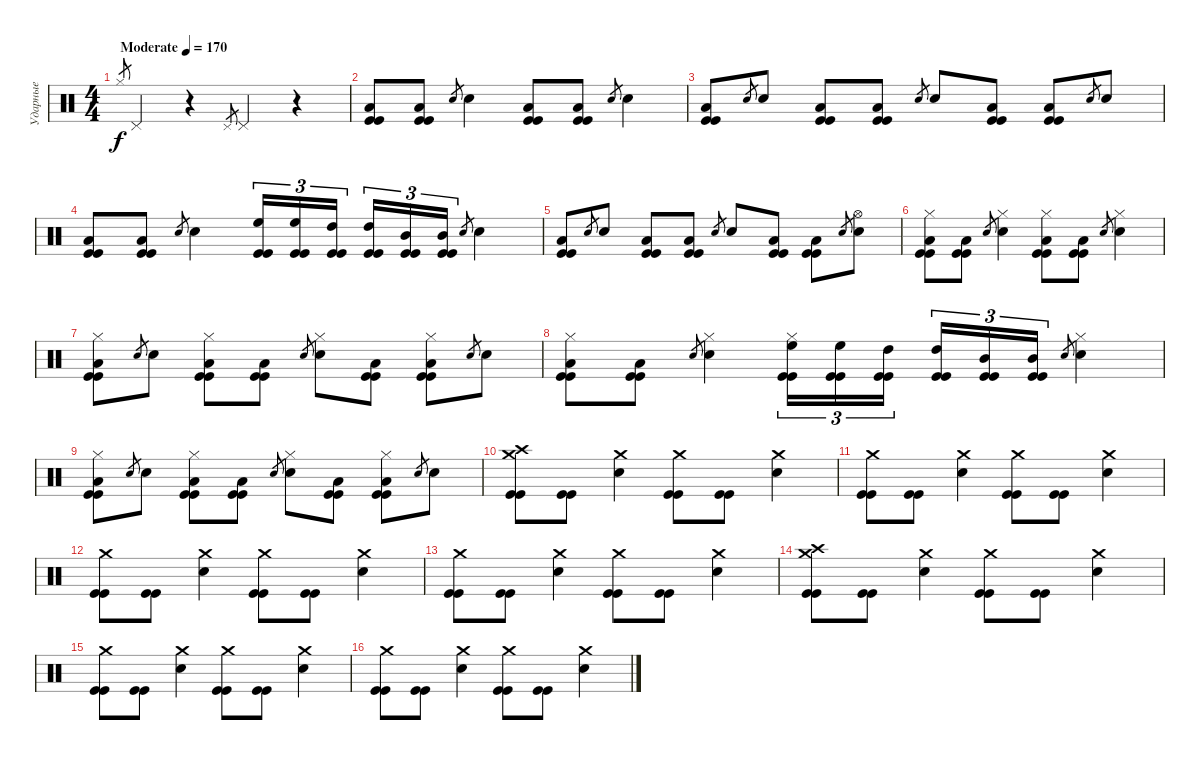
\track ("Ударные" "Ударные") {instrument percussion}
\staff {score}
\articulation defaults
\ts (4 4)
\tempo (170 "Moderate")
\clef neutral
\ks c "Hi-Hat (closed)".8{gr dy f} "Pedal Hi-Hat (hit)".4
r.4 "Pedal Hi-Hat (hit)".8{gr} "Pedal Hi-Hat (hit)".4 r.4 |
("Low Tom (hit)" "Kick (hit)" "Kick (hit)").8 ("Low Tom (hit)" "Kick (hit)" "Kick (hit)").8 "Electric Snare (hit)".8{gr} "Electric Snare (hit)".4 ("Low Tom (hit)" "Kick (hit)" "Kick (hit)").8 ("Low Tom (hit)" "Kick (hit)" "Kick (hit)").8 "Electric Snare (hit)".8{gr} "Electric Snare (hit)".4 |
("Low Tom (hit)" "Kick (hit)" "Kick (hit)").8 "Electric Snare (hit)".8{gr} "Electric Snare (hit)".8 ("Low Tom (hit)" "Kick (hit)" "Kick (hit)").8 ("Low Tom (hit)" "Kick (hit)" "Kick (hit)").8 "Electric Snare (hit)".8{gr} "Electric Snare (hit)".8 ("Low Tom (hit)" "Kick (hit)" "Kick (hit)").8 ("Low Tom (hit)" "Kick (hit)" "Kick (hit)").8 "Electric Snare (hit)".8{gr} "Electric Snare (hit)".8 |
("Low Tom (hit)" "Kick (hit)" "Kick (hit)").8 ("Low Tom (hit)" "Kick (hit)" "Kick (hit)").8 "Electric Snare (hit)".8{gr} "Electric Snare (hit)".4 ("High Floor Tom (hit)" "Kick (hit)" "Kick (hit)").16{tu (3 2)} ("High Floor Tom (hit)" "Kick (hit)" "Kick (hit)").16{tu (3 2)} ("High Tom (hit)" "Kick (hit)" "Kick (hit)").16{tu (3 2) beam splitsecondary} ("High Tom (hit)" "Kick (hit)" "Kick (hit)").16{tu (3 2)} ("Mid Tom (hit)" "Kick (hit)" "Kick (hit)").16{tu (3 2)} ("Mid Tom (hit)" "Kick (hit)" "Kick (hit)").16{tu (3 2)} "Electric Snare (hit)".8{gr} "Electric Snare (hit)".4 |
("Low Tom (hit)" "Kick (hit)" "Kick (hit)").8 "Electric Snare (hit)".8{gr} "Electric Snare (hit)".8 ("Low Tom (hit)" "Kick (hit)" "Kick (hit)").8 ("Low Tom (hit)" "Kick (hit)" "Kick (hit)").8 "Electric Snare (hit)".8{gr} "Electric Snare (hit)".8 ("Low Tom (hit)" "Kick (hit)" "Kick (hit)").8 ("Low Tom (hit)" "Kick (hit)" "Kick (hit)").8 "Electric Snare (hit)".8{gr} ("Hi-Hat (open)" "Electric Snare (hit)").8 |
("Hi-Hat (closed)" "Low Tom (hit)" "Kick (hit)" "Kick (hit)").8 ("Low Tom (hit)" "Kick (hit)" "Kick (hit)").8 "Electric Snare (hit)".8{gr} ("Hi-Hat (closed)" "Electric Snare (hit)").4 ("Hi-Hat (closed)" "Low Tom (hit)" "Kick (hit)" "Kick (hit)").8 ("Low Tom (hit)" "Kick (hit)" "Kick (hit)").8 "Electric Snare (hit)".8{gr} ("Hi-Hat (closed)" "Electric Snare (hit)").4 |
("Hi-Hat (closed)" "Low Tom (hit)" "Kick (hit)" "Kick (hit)").8 "Electric Snare (hit)".8{gr} "Electric Snare (hit)".8 ("Hi-Hat (closed)" "Low Tom (hit)" "Kick (hit)" "Kick (hit)").8 ("Low Tom (hit)" "Kick (hit)" "Kick (hit)").8 "Electric Snare (hit)".8{gr} ("Hi-Hat (closed)" "Electric Snare (hit)").8 ("Low Tom (hit)" "Kick (hit)" "Kick (hit)").8 ("Hi-Hat (closed)" "Low Tom (hit)" "Kick (hit)" "Kick (hit)").8 "Electric Snare (hit)".8{gr} "Electric Snare (hit)".8 |
("Hi-Hat (closed)" "Low Tom (hit)" "Kick (hit)" "Kick (hit)").8 ("Low Tom (hit)" "Kick (hit)" "Kick (hit)").8 "Electric Snare (hit)".8{gr} ("Hi-Hat (closed)" "Electric Snare (hit)").4 ("Hi-Hat (closed)" "High Floor Tom (hit)" "Kick (hit)" "Kick (hit)").16{tu (3 2)} ("High Floor Tom (hit)" "Kick (hit)" "Kick (hit)").16{tu (3 2)} ("High Tom (hit)" "Kick (hit)" "Kick (hit)").16{tu (3 2) beam splitsecondary} ("High Tom (hit)" "Kick (hit)" "Kick (hit)").16{tu (3 2)} ("Mid Tom (hit)" "Kick (hit)" "Kick (hit)").16{tu (3 2)} ("Mid Tom (hit)" "Kick (hit)" "Kick (hit)").16{tu (3 2)} "Electric Snare (hit)".8{gr} ("Hi-Hat (closed)" "Electric Snare (hit)").4 |
("Hi-Hat (closed)" "Low Tom (hit)" "Kick (hit)" "Kick (hit)").8 "Electric Snare (hit)".8{gr} "Electric Snare (hit)".8 ("Hi-Hat (closed)" "Low Tom (hit)" "Kick (hit)" "Kick (hit)").8 ("Low Tom (hit)" "Kick (hit)" "Kick (hit)").8 "Electric Snare (hit)".8{gr} ("Hi-Hat (closed)" "Electric Snare (hit)").8 ("Low Tom (hit)" "Kick (hit)" "Kick (hit)").8 ("Hi-Hat (closed)" "Low Tom (hit)" "Kick (hit)" "Kick (hit)").8 "Electric Snare (hit)".8{gr} "Electric Snare (hit)".8 |
("Crash high (hit)" "Crash medium (hit)" "Kick (hit)" "Kick (hit)").8 ("Kick (hit)" "Kick (hit)").8 ("Crash medium (hit)" "Electric Snare (hit)").4 ("Crash medium (hit)" "Kick (hit)" "Kick (hit)").8 ("Kick (hit)" "Kick (hit)").8 ("Crash medium (hit)" "Electric Snare (hit)").4 |
("Crash medium (hit)" "Kick (hit)" "Kick (hit)").8 ("Kick (hit)" "Kick (hit)").8 ("Crash medium (hit)" "Electric Snare (hit)").4 ("Crash medium (hit)" "Kick (hit)" "Kick (hit)").8 ("Kick (hit)" "Kick (hit)").8 ("Crash medium (hit)" "Electric Snare (hit)").4 |
("Crash medium (hit)" "Kick (hit)" "Kick (hit)").8 ("Kick (hit)" "Kick (hit)").8 ("Crash medium (hit)" "Electric Snare (hit)").4 ("Crash medium (hit)" "Kick (hit)" "Kick (hit)").8 ("Kick (hit)" "Kick (hit)").8 ("Crash medium (hit)" "Electric Snare (hit)").4 |
("Crash medium (hit)" "Kick (hit)" "Kick (hit)").8 ("Kick (hit)" "Kick (hit)").8 ("Crash medium (hit)" "Electric Snare (hit)").4 ("Crash medium (hit)" "Kick (hit)" "Kick (hit)").8 ("Kick (hit)" "Kick (hit)").8 ("Crash medium (hit)" "Electric Snare (hit)").4 |
("Crash high (hit)" "Crash medium (hit)" "Kick (hit)" "Kick (hit)").8 ("Kick (hit)" "Kick (hit)").8 ("Crash medium (hit)" "Electric Snare (hit)").4 ("Crash medium (hit)" "Kick (hit)" "Kick (hit)").8 ("Kick (hit)" "Kick (hit)").8 ("Crash medium (hit)" "Electric Snare (hit)").4 |
("Crash medium (hit)" "Kick (hit)" "Kick (hit)").8 ("Kick (hit)" "Kick (hit)").8 ("Crash medium (hit)" "Electric Snare (hit)").4 ("Crash medium (hit)" "Kick (hit)" "Kick (hit)").8 ("Kick (hit)" "Kick (hit)").8 ("Crash medium (hit)" "Electric Snare (hit)").4 |
("Crash medium (hit)" "Kick (hit)" "Kick (hit)").8 ("Kick (hit)" "Kick (hit)").8 ("Crash medium (hit)" "Electric Snare (hit)").4 ("Crash medium (hit)" "Kick (hit)" "Kick (hit)").8 ("Kick (hit)" "Kick (hit)").8 ("Crash medium (hit)" "Electric Snare (hit)").4
